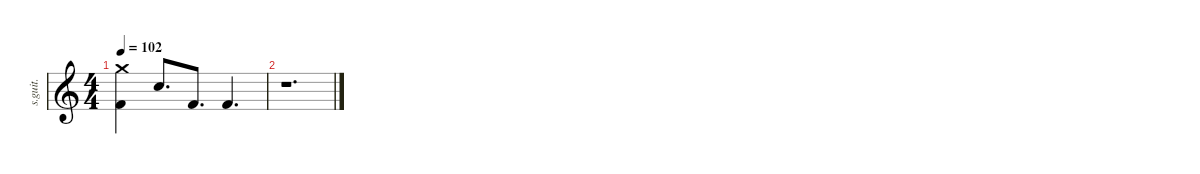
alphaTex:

\defaultSystemsLayout 4
\hideDynamics
\bracketExtendMode nobrackets
\track ("" "s.guit.") {instrument percussion}
\staff {score}
\articulation defaults
\ts (4 4)
\tempo 102
\clef g2
\ks c
("Crash medium (hit)" "Kick (hit) 2").4{dy pp} "Electric Snare (hit)".8{d dy f} "Kick (hit) 2".8{d} "Kick (hit) 2".4{d} |
r.1{d}
